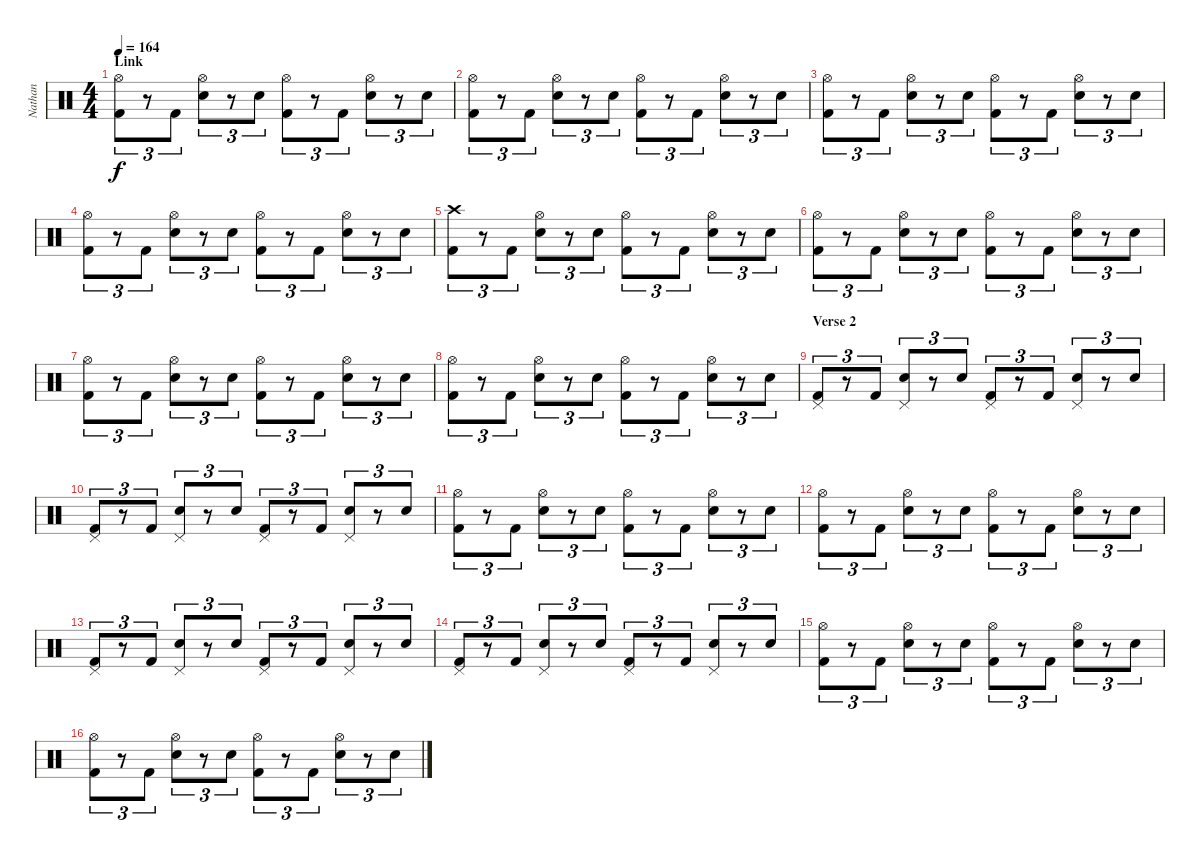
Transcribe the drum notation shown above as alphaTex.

\track ("Nathan" "Nathan") {instrument percussion}
\staff {score}
\articulation defaults
\ts (4 4)
\section ("" "Link")
\tempo 164
\clef neutral
\ks c
("Hi-Hat (open)" "Kick (hit) 2").8{tu (3 2) dy f} r.8{tu (3 2)} "Kick (hit) 2".8{tu (3 2)} ("Hi-Hat (open)" "Snare (hit) 2").8{tu (3 2)} r.8{tu (3 2)} "Snare (hit) 2".8{tu (3 2)} ("Hi-Hat (open)" "Kick (hit) 2").8{tu (3 2)} r.8{tu (3 2)} "Kick (hit) 2".8{tu (3 2)} ("Hi-Hat (open)" "Snare (hit) 2").8{tu (3 2)} r.8{tu (3 2)} "Snare (hit) 2".8{tu (3 2)} |
("Hi-Hat (open)" "Kick (hit) 2").8{tu (3 2)} r.8{tu (3 2)} "Kick (hit) 2".8{tu (3 2)} ("Hi-Hat (open)" "Snare (hit) 2").8{tu (3 2)} r.8{tu (3 2)} "Snare (hit) 2".8{tu (3 2)} ("Hi-Hat (open)" "Kick (hit) 2").8{tu (3 2)} r.8{tu (3 2)} "Kick (hit) 2".8{tu (3 2)} ("Hi-Hat (open)" "Snare (hit) 2").8{tu (3 2)} r.8{tu (3 2)} "Snare (hit) 2".8{tu (3 2)} |
("Hi-Hat (open)" "Kick (hit) 2").8{tu (3 2)} r.8{tu (3 2)} "Kick (hit) 2".8{tu (3 2)} ("Hi-Hat (open)" "Snare (hit) 2").8{tu (3 2)} r.8{tu (3 2)} "Snare (hit) 2".8{tu (3 2)} ("Hi-Hat (open)" "Kick (hit) 2").8{tu (3 2)} r.8{tu (3 2)} "Kick (hit) 2".8{tu (3 2)} ("Hi-Hat (open)" "Snare (hit) 2").8{tu (3 2)} r.8{tu (3 2)} "Snare (hit) 2".8{tu (3 2)} |
("Hi-Hat (open)" "Kick (hit) 2").8{tu (3 2)} r.8{tu (3 2)} "Kick (hit) 2".8{tu (3 2)} ("Hi-Hat (open)" "Snare (hit) 2").8{tu (3 2)} r.8{tu (3 2)} "Snare (hit) 2".8{tu (3 2)} ("Hi-Hat (open)" "Kick (hit) 2").8{tu (3 2)} r.8{tu (3 2)} "Kick (hit) 2".8{tu (3 2)} ("Hi-Hat (open)" "Snare (hit) 2").8{tu (3 2)} r.8{tu (3 2)} "Snare (hit) 2".8{tu (3 2)} |
("Crash high (hit)" "Kick (hit) 2").8{tu (3 2)} r.8{tu (3 2)} "Kick (hit) 2".8{tu (3 2)} ("Hi-Hat (open)" "Snare (hit) 2").8{tu (3 2)} r.8{tu (3 2)} "Snare (hit) 2".8{tu (3 2)} ("Hi-Hat (open)" "Kick (hit) 2").8{tu (3 2)} r.8{tu (3 2)} "Kick (hit) 2".8{tu (3 2)} ("Hi-Hat (open)" "Snare (hit) 2").8{tu (3 2)} r.8{tu (3 2)} "Snare (hit) 2".8{tu (3 2)} |
("Hi-Hat (open)" "Kick (hit) 2").8{tu (3 2)} r.8{tu (3 2)} "Kick (hit) 2".8{tu (3 2)} ("Hi-Hat (open)" "Snare (hit) 2").8{tu (3 2)} r.8{tu (3 2)} "Snare (hit) 2".8{tu (3 2)} ("Hi-Hat (open)" "Kick (hit) 2").8{tu (3 2)} r.8{tu (3 2)} "Kick (hit) 2".8{tu (3 2)} ("Hi-Hat (open)" "Snare (hit) 2").8{tu (3 2)} r.8{tu (3 2)} "Snare (hit) 2".8{tu (3 2)} |
("Hi-Hat (open)" "Kick (hit) 2").8{tu (3 2)} r.8{tu (3 2)} "Kick (hit) 2".8{tu (3 2)} ("Hi-Hat (open)" "Snare (hit) 2").8{tu (3 2)} r.8{tu (3 2)} "Snare (hit) 2".8{tu (3 2)} ("Hi-Hat (open)" "Kick (hit) 2").8{tu (3 2)} r.8{tu (3 2)} "Kick (hit) 2".8{tu (3 2)} ("Hi-Hat (open)" "Snare (hit) 2").8{tu (3 2)} r.8{tu (3 2)} "Snare (hit) 2".8{tu (3 2)} |
("Hi-Hat (open)" "Kick (hit) 2").8{tu (3 2)} r.8{tu (3 2)} "Kick (hit) 2".8{tu (3 2)} ("Hi-Hat (open)" "Snare (hit) 2").8{tu (3 2)} r.8{tu (3 2)} "Snare (hit) 2".8{tu (3 2)} ("Hi-Hat (open)" "Kick (hit) 2").8{tu (3 2)} r.8{tu (3 2)} "Kick (hit) 2".8{tu (3 2)} ("Hi-Hat (open)" "Snare (hit) 2").8{tu (3 2)} r.8{tu (3 2)} "Snare (hit) 2".8{tu (3 2)} |
\section ("" "Verse 2")
("Pedal Hi-Hat (hit)" "Kick (hit) 2").8{tu (3 2)} r.8{tu (3 2)} "Kick (hit) 2".8{tu (3 2)} ("Pedal Hi-Hat (hit)" "Snare (hit) 2").8{tu (3 2)} r.8{tu (3 2)} "Snare (hit) 2".8{tu (3 2)} ("Pedal Hi-Hat (hit)" "Kick (hit) 2").8{tu (3 2)} r.8{tu (3 2)} "Kick (hit) 2".8{tu (3 2)} ("Pedal Hi-Hat (hit)" "Snare (hit) 2").8{tu (3 2)} r.8{tu (3 2)} "Snare (hit) 2".8{tu (3 2)} |
("Pedal Hi-Hat (hit)" "Kick (hit) 2").8{tu (3 2)} r.8{tu (3 2)} "Kick (hit) 2".8{tu (3 2)} ("Pedal Hi-Hat (hit)" "Snare (hit) 2").8{tu (3 2)} r.8{tu (3 2)} "Snare (hit) 2".8{tu (3 2)} ("Pedal Hi-Hat (hit)" "Kick (hit) 2").8{tu (3 2)} r.8{tu (3 2)} "Kick (hit) 2".8{tu (3 2)} ("Pedal Hi-Hat (hit)" "Snare (hit) 2").8{tu (3 2)} r.8{tu (3 2)} "Snare (hit) 2".8{tu (3 2)} |
("Hi-Hat (open)" "Kick (hit) 2").8{tu (3 2)} r.8{tu (3 2)} "Kick (hit) 2".8{tu (3 2)} ("Hi-Hat (open)" "Snare (hit) 2").8{tu (3 2)} r.8{tu (3 2)} "Snare (hit) 2".8{tu (3 2)} ("Hi-Hat (open)" "Kick (hit) 2").8{tu (3 2)} r.8{tu (3 2)} "Kick (hit) 2".8{tu (3 2)} ("Hi-Hat (open)" "Snare (hit) 2").8{tu (3 2)} r.8{tu (3 2)} "Snare (hit) 2".8{tu (3 2)} |
("Hi-Hat (open)" "Kick (hit) 2").8{tu (3 2)} r.8{tu (3 2)} "Kick (hit) 2".8{tu (3 2)} ("Hi-Hat (open)" "Snare (hit) 2").8{tu (3 2)} r.8{tu (3 2)} "Snare (hit) 2".8{tu (3 2)} ("Hi-Hat (open)" "Kick (hit) 2").8{tu (3 2)} r.8{tu (3 2)} "Kick (hit) 2".8{tu (3 2)} ("Hi-Hat (open)" "Snare (hit) 2").8{tu (3 2)} r.8{tu (3 2)} "Snare (hit) 2".8{tu (3 2)} |
("Pedal Hi-Hat (hit)" "Kick (hit) 2").8{tu (3 2)} r.8{tu (3 2)} "Kick (hit) 2".8{tu (3 2)} ("Pedal Hi-Hat (hit)" "Snare (hit) 2").8{tu (3 2)} r.8{tu (3 2)} "Snare (hit) 2".8{tu (3 2)} ("Pedal Hi-Hat (hit)" "Kick (hit) 2").8{tu (3 2)} r.8{tu (3 2)} "Kick (hit) 2".8{tu (3 2)} ("Pedal Hi-Hat (hit)" "Snare (hit) 2").8{tu (3 2)} r.8{tu (3 2)} "Snare (hit) 2".8{tu (3 2)} |
("Pedal Hi-Hat (hit)" "Kick (hit) 2").8{tu (3 2)} r.8{tu (3 2)} "Kick (hit) 2".8{tu (3 2)} ("Pedal Hi-Hat (hit)" "Snare (hit) 2").8{tu (3 2)} r.8{tu (3 2)} "Snare (hit) 2".8{tu (3 2)} ("Pedal Hi-Hat (hit)" "Kick (hit) 2").8{tu (3 2)} r.8{tu (3 2)} "Kick (hit) 2".8{tu (3 2)} ("Pedal Hi-Hat (hit)" "Snare (hit) 2").8{tu (3 2)} r.8{tu (3 2)} "Snare (hit) 2".8{tu (3 2)} |
("Hi-Hat (open)" "Kick (hit) 2").8{tu (3 2)} r.8{tu (3 2)} "Kick (hit) 2".8{tu (3 2)} ("Hi-Hat (open)" "Snare (hit) 2").8{tu (3 2)} r.8{tu (3 2)} "Snare (hit) 2".8{tu (3 2)} ("Hi-Hat (open)" "Kick (hit) 2").8{tu (3 2)} r.8{tu (3 2)} "Kick (hit) 2".8{tu (3 2)} ("Hi-Hat (open)" "Snare (hit) 2").8{tu (3 2)} r.8{tu (3 2)} "Snare (hit) 2".8{tu (3 2)} |
("Hi-Hat (open)" "Kick (hit) 2").8{tu (3 2)} r.8{tu (3 2)} "Kick (hit) 2".8{tu (3 2)} ("Hi-Hat (open)" "Snare (hit) 2").8{tu (3 2)} r.8{tu (3 2)} "Snare (hit) 2".8{tu (3 2)} ("Hi-Hat (open)" "Kick (hit) 2").8{tu (3 2)} r.8{tu (3 2)} "Kick (hit) 2".8{tu (3 2)} ("Hi-Hat (open)" "Snare (hit) 2").8{tu (3 2)} r.8{tu (3 2)} "Snare (hit) 2".8{tu (3 2)}
